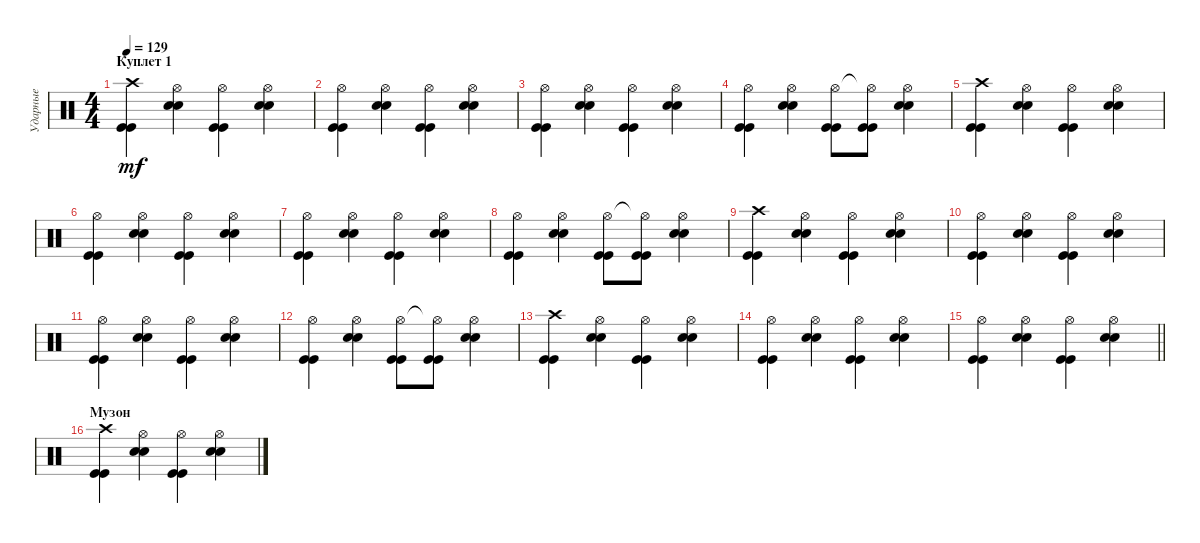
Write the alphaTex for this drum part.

\track ("Ударные" "Ударные") {instrument percussion}
\staff {score}
\articulation defaults
\ts (4 4)
\section ("" "Куплет 1")
\tempo 129
\clef neutral
\ks c
("Crash high (hit)" "Kick (hit)" "Kick (hit)").4{dy mf} ("Hi-Hat (open)" "Snare (hit) 2" "Snare (hit) 2").4 ("Hi-Hat (open)" "Kick (hit)" "Kick (hit)").4 ("Hi-Hat (open)" "Snare (hit) 2" "Snare (hit) 2").4 |
("Hi-Hat (open)" "Kick (hit)" "Kick (hit)").4 ("Hi-Hat (open)" "Snare (hit) 2" "Snare (hit) 2").4 ("Hi-Hat (open)" "Kick (hit)" "Kick (hit)").4 ("Hi-Hat (open)" "Snare (hit) 2" "Snare (hit) 2").4 |
("Hi-Hat (open)" "Kick (hit)" "Kick (hit)").4 ("Hi-Hat (open)" "Snare (hit) 2" "Snare (hit) 2").4 ("Hi-Hat (open)" "Kick (hit)" "Kick (hit)").4 ("Hi-Hat (open)" "Snare (hit) 2" "Snare (hit) 2").4 |
("Hi-Hat (open)" "Kick (hit)" "Kick (hit)").4 ("Hi-Hat (open)" "Snare (hit) 2" "Snare (hit) 2").4 ("Hi-Hat (open)" "Kick (hit)" "Kick (hit)").8 ("Hi-Hat (open)"{t} "Kick (hit)" "Kick (hit)").8 ("Hi-Hat (open)" "Snare (hit) 2" "Snare (hit) 2").4 |
("Crash high (hit)" "Kick (hit)" "Kick (hit)").4 ("Hi-Hat (open)" "Snare (hit) 2" "Snare (hit) 2").4 ("Hi-Hat (open)" "Kick (hit)" "Kick (hit)").4 ("Hi-Hat (open)" "Snare (hit) 2" "Snare (hit) 2").4 |
("Hi-Hat (open)" "Kick (hit)" "Kick (hit)").4 ("Hi-Hat (open)" "Snare (hit) 2" "Snare (hit) 2").4 ("Hi-Hat (open)" "Kick (hit)" "Kick (hit)").4 ("Hi-Hat (open)" "Snare (hit) 2" "Snare (hit) 2").4 |
("Hi-Hat (open)" "Kick (hit)" "Kick (hit)").4 ("Hi-Hat (open)" "Snare (hit) 2" "Snare (hit) 2").4 ("Hi-Hat (open)" "Kick (hit)" "Kick (hit)").4 ("Hi-Hat (open)" "Snare (hit) 2" "Snare (hit) 2").4 |
("Hi-Hat (open)" "Kick (hit)" "Kick (hit)").4 ("Hi-Hat (open)" "Snare (hit) 2" "Snare (hit) 2").4 ("Hi-Hat (open)" "Kick (hit)" "Kick (hit)").8 ("Hi-Hat (open)"{t} "Kick (hit)" "Kick (hit)").8 ("Hi-Hat (open)" "Snare (hit) 2" "Snare (hit) 2").4 |
("Crash high (hit)" "Kick (hit)" "Kick (hit)").4 ("Hi-Hat (open)" "Snare (hit) 2" "Snare (hit) 2").4 ("Hi-Hat (open)" "Kick (hit)" "Kick (hit)").4 ("Hi-Hat (open)" "Snare (hit) 2" "Snare (hit) 2").4 |
("Hi-Hat (open)" "Kick (hit)" "Kick (hit)").4 ("Hi-Hat (open)" "Snare (hit) 2" "Snare (hit) 2").4 ("Hi-Hat (open)" "Kick (hit)" "Kick (hit)").4 ("Hi-Hat (open)" "Snare (hit) 2" "Snare (hit) 2").4 |
("Hi-Hat (open)" "Kick (hit)" "Kick (hit)").4 ("Hi-Hat (open)" "Snare (hit) 2" "Snare (hit) 2").4 ("Hi-Hat (open)" "Kick (hit)" "Kick (hit)").4 ("Hi-Hat (open)" "Snare (hit) 2" "Snare (hit) 2").4 |
("Hi-Hat (open)" "Kick (hit)" "Kick (hit)").4 ("Hi-Hat (open)" "Snare (hit) 2" "Snare (hit) 2").4 ("Hi-Hat (open)" "Kick (hit)" "Kick (hit)").8 ("Hi-Hat (open)"{t} "Kick (hit)" "Kick (hit)").8 ("Hi-Hat (open)" "Snare (hit) 2" "Snare (hit) 2").4 |
("Crash high (hit)" "Kick (hit)" "Kick (hit)").4 ("Hi-Hat (open)" "Snare (hit) 2" "Snare (hit) 2").4 ("Hi-Hat (open)" "Kick (hit)" "Kick (hit)").4 ("Hi-Hat (open)" "Snare (hit) 2" "Snare (hit) 2").4 |
("Hi-Hat (open)" "Kick (hit)" "Kick (hit)").4 ("Hi-Hat (open)" "Snare (hit) 2" "Snare (hit) 2").4 ("Hi-Hat (open)" "Kick (hit)" "Kick (hit)").4 ("Hi-Hat (open)" "Snare (hit) 2" "Snare (hit) 2").4 |
\barLineRight lightlight
("Hi-Hat (open)" "Kick (hit)" "Kick (hit)").4 ("Hi-Hat (open)" "Snare (hit) 2" "Snare (hit) 2").4 ("Hi-Hat (open)" "Kick (hit)" "Kick (hit)").4 ("Hi-Hat (open)" "Snare (hit) 2" "Snare (hit) 2").4 |
\section ("" "Музон")
("Crash high (hit)" "Kick (hit)" "Kick (hit)").4 ("Hi-Hat (open)" "Snare (hit) 2" "Snare (hit) 2").4 ("Hi-Hat (open)" "Kick (hit)" "Kick (hit)").4 ("Hi-Hat (open)" "Snare (hit) 2" "Snare (hit) 2").4
